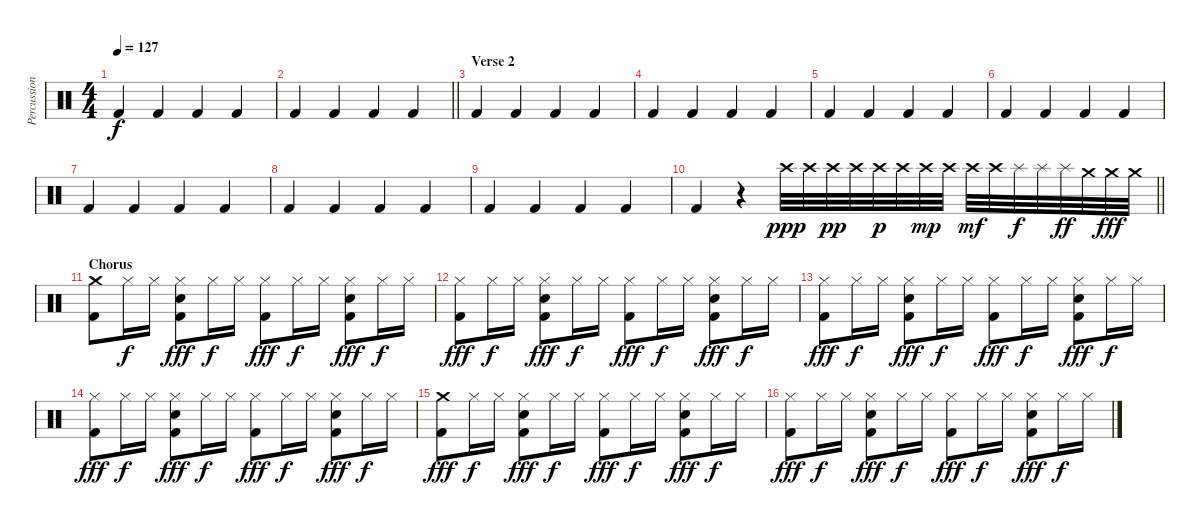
\track ("Percussion" "Percussion") {instrument percussion}
\staff {score}
\articulation defaults
\ts (4 4)
\tempo 127
\clef neutral
\ks c "Kick (hit) 2".4{dy f} "Kick (hit) 2".4 "Kick (hit) 2".4 "Kick (hit) 2".4
|
\barLineRight lightlight "Kick (hit) 2".4 "Kick (hit) 2".4 "Kick (hit) 2".4 "Kick (hit) 2".4
|
\section ("" "Verse 2")
"Kick (hit) 2".4 "Kick (hit) 2".4 "Kick (hit) 2".4 "Kick (hit) 2".4 |
"Kick (hit) 2".4 "Kick (hit) 2".4 "Kick (hit) 2".4 "Kick (hit) 2".4 |
"Kick (hit) 2".4 "Kick (hit) 2".4 "Kick (hit) 2".4 "Kick (hit) 2".4 |
"Kick (hit) 2".4 "Kick (hit) 2".4 "Kick (hit) 2".4 "Kick (hit) 2".4 |
"Kick (hit) 2".4 "Kick (hit) 2".4 "Kick (hit) 2".4 "Kick (hit) 2".4 |
"Kick (hit) 2".4 "Kick (hit) 2".4 "Kick (hit) 2".4 "Kick (hit) 2".4 |
"Kick (hit) 2".4 "Kick (hit) 2".4 "Kick (hit) 2".4 "Kick (hit) 2".4 |
\barLineRight lightlight "Kick (hit) 2".4
r.4 "Crash high (hit)".32{dy ppp} "Crash high (hit)".32 "Crash high (hit)".32{dy pp} "Crash high (hit)".32 "Crash high (hit)".32{dy p} "Crash high (hit)".32 "Crash high (hit)".32{dy mp} "Crash high (hit)".32 "Crash high (hit)".32{dy mf} "Crash high (hit)".32 "Splash (hit)".32{dy f} "Splash (hit)".32 "Splash (hit)".32{dy ff} "Crash medium (hit)".32 "Crash medium (hit)".32{dy fff} "Crash medium (hit)".32 |
\section ("" "Chorus")
("Crash medium (hit)" "Kick (hit) 2").8 "Hi-Hat (closed)".16{dy f} "Hi-Hat (closed)".16 ("Hi-Hat (closed)" "Snare (hit) 2" "Kick (hit) 2").8{dy fff} "Hi-Hat (closed)".16{dy f} "Hi-Hat (closed)".16 ("Hi-Hat (closed)" "Kick (hit) 2").8{dy fff} "Hi-Hat (closed)".16{dy f} "Hi-Hat (closed)".16 ("Hi-Hat (closed)" "Snare (hit) 2" "Kick (hit) 2").8{dy fff} "Hi-Hat (closed)".16{dy f} "Hi-Hat (closed)".16 |
("Hi-Hat (closed)" "Kick (hit) 2").8{dy fff} "Hi-Hat (closed)".16{dy f} "Hi-Hat (closed)".16 ("Hi-Hat (closed)" "Snare (hit) 2" "Kick (hit) 2").8{dy fff} "Hi-Hat (closed)".16{dy f} "Hi-Hat (closed)".16 ("Hi-Hat (closed)" "Kick (hit) 2").8{dy fff} "Hi-Hat (closed)".16{dy f} "Hi-Hat (closed)".16 ("Hi-Hat (closed)" "Snare (hit) 2" "Kick (hit) 2").8{dy fff} "Hi-Hat (closed)".16{dy f} "Hi-Hat (closed)".16 |
("Hi-Hat (closed)" "Kick (hit) 2").8{dy fff} "Hi-Hat (closed)".16{dy f} "Hi-Hat (closed)".16 ("Hi-Hat (closed)" "Snare (hit) 2" "Kick (hit) 2").8{dy fff} "Hi-Hat (closed)".16{dy f} "Hi-Hat (closed)".16 ("Hi-Hat (closed)" "Kick (hit) 2").8{dy fff} "Hi-Hat (closed)".16{dy f} "Hi-Hat (closed)".16 ("Hi-Hat (closed)" "Snare (hit) 2" "Kick (hit) 2").8{dy fff} "Hi-Hat (closed)".16{dy f} "Hi-Hat (closed)".16 |
("Hi-Hat (closed)" "Kick (hit) 2").8{dy fff} "Hi-Hat (closed)".16{dy f} "Hi-Hat (closed)".16 ("Hi-Hat (closed)" "Snare (hit) 2" "Kick (hit) 2").8{dy fff} "Hi-Hat (closed)".16{dy f} "Hi-Hat (closed)".16 ("Hi-Hat (closed)" "Kick (hit) 2").8{dy fff} "Hi-Hat (closed)".16{dy f} "Hi-Hat (closed)".16 ("Hi-Hat (closed)" "Snare (hit) 2" "Kick (hit) 2").8{dy fff} "Hi-Hat (closed)".16{dy f} "Hi-Hat (closed)".16 |
("Crash medium (hit)" "Kick (hit) 2").8{dy fff} "Hi-Hat (closed)".16{dy f} "Hi-Hat (closed)".16 ("Hi-Hat (closed)" "Snare (hit) 2" "Kick (hit) 2").8{dy fff} "Hi-Hat (closed)".16{dy f} "Hi-Hat (closed)".16 ("Hi-Hat (closed)" "Kick (hit) 2").8{dy fff} "Hi-Hat (closed)".16{dy f} "Hi-Hat (closed)".16 ("Hi-Hat (closed)" "Snare (hit) 2" "Kick (hit) 2").8{dy fff} "Hi-Hat (closed)".16{dy f} "Hi-Hat (closed)".16 |
("Hi-Hat (closed)" "Kick (hit) 2").8{dy fff} "Hi-Hat (closed)".16{dy f} "Hi-Hat (closed)".16 ("Hi-Hat (closed)" "Snare (hit) 2" "Kick (hit) 2").8{dy fff} "Hi-Hat (closed)".16{dy f} "Hi-Hat (closed)".16 ("Hi-Hat (closed)" "Kick (hit) 2").8{dy fff} "Hi-Hat (closed)".16{dy f} "Hi-Hat (closed)".16 ("Hi-Hat (closed)" "Snare (hit) 2" "Kick (hit) 2").8{dy fff} "Hi-Hat (closed)".16{dy f} "Hi-Hat (closed)".16
